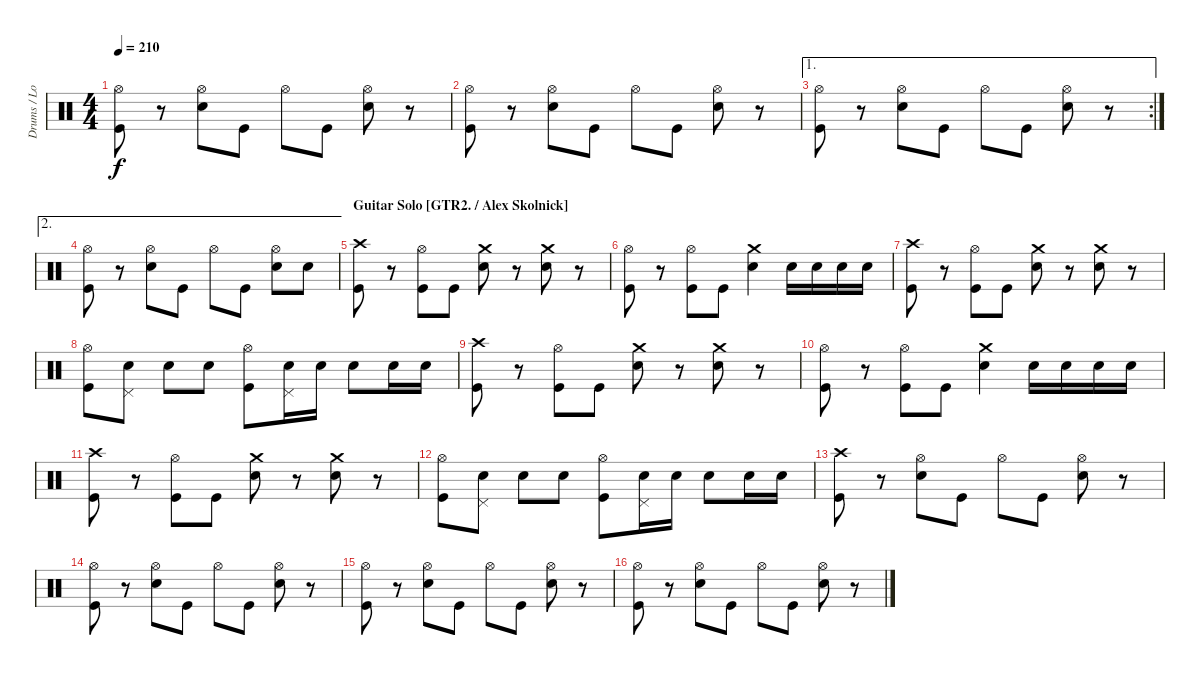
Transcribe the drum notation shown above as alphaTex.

\track ("Drums / Louie Clemente" "Drums / Lo") {instrument percussion}
\staff {score}
\articulation defaults
\ts (4 4)
\tempo 210
\clef neutral
\ks c
("Hi-Hat (open)" "Kick (hit)").8{dy f} r.8 ("Hi-Hat (open)" "Snare (hit) 2").8 "Kick (hit)".8 "Hi-Hat (open)".8 "Kick (hit)".8 ("Hi-Hat (open)" "Snare (hit) 2").8 r.8 |
("Hi-Hat (open)" "Kick (hit)").8 r.8 ("Hi-Hat (open)" "Snare (hit) 2").8 "Kick (hit)".8 "Hi-Hat (open)".8 "Kick (hit)".8 ("Hi-Hat (open)" "Snare (hit) 2").8 r.8 |
\ae 1
\rc 2
("Hi-Hat (open)" "Kick (hit)").8 r.8 ("Hi-Hat (open)" "Snare (hit) 2").8 "Kick (hit)".8 "Hi-Hat (open)".8 "Kick (hit)".8 ("Hi-Hat (open)" "Snare (hit) 2").8 r.8 |
\ae 2
("Hi-Hat (open)" "Kick (hit)").8 r.8 ("Hi-Hat (open)" "Snare (hit) 2").8 "Kick (hit)".8 "Hi-Hat (open)".8 "Kick (hit)".8 ("Hi-Hat (open)" "Snare (hit) 2").8 "Snare (hit) 2".8 |
\section ("" "Guitar Solo [GTR2. / Alex Skolnick]")
("Crash high (hit)" "Kick (hit)").8 r.8 ("Hi-Hat (open)" "Kick (hit)").8 "Kick (hit)".8 ("Crash medium (hit)" "Snare (hit) 2").8 r.8 ("Crash medium (hit)" "Snare (hit) 2").8 r.8 |
("Hi-Hat (open)" "Kick (hit)").8 r.8 ("Hi-Hat (open)" "Kick (hit)").8 "Kick (hit)".8 ("Crash medium (hit)" "Snare (hit) 2").4 "Snare (hit) 2".16 "Snare (hit) 2".16 "Snare (hit) 2".16 "Snare (hit) 2".16 |
("Crash high (hit)" "Kick (hit)").8 r.8 ("Hi-Hat (open)" "Kick (hit)").8 "Kick (hit)".8 ("Crash medium (hit)" "Snare (hit) 2").8 r.8 ("Crash medium (hit)" "Snare (hit) 2").8 r.8 |
("Hi-Hat (open)" "Kick (hit)").8 ("Pedal Hi-Hat (hit)" "Snare (hit) 2").8 "Snare (hit) 2".8 "Snare (hit) 2".8 ("Hi-Hat (open)" "Kick (hit)").8 ("Pedal Hi-Hat (hit)" "Snare (hit) 2").16 "Snare (hit) 2".16 "Snare (hit) 2".8 "Snare (hit) 2".16 "Snare (hit) 2".16 |
("Crash high (hit)" "Kick (hit)").8 r.8 ("Hi-Hat (open)" "Kick (hit)").8 "Kick (hit)".8 ("Crash medium (hit)" "Snare (hit) 2").8 r.8 ("Crash medium (hit)" "Snare (hit) 2").8 r.8 |
("Hi-Hat (open)" "Kick (hit)").8 r.8 ("Hi-Hat (open)" "Kick (hit)").8 "Kick (hit)".8 ("Crash medium (hit)" "Snare (hit) 2").4 "Snare (hit) 2".16 "Snare (hit) 2".16 "Snare (hit) 2".16 "Snare (hit) 2".16 |
("Crash high (hit)" "Kick (hit)").8 r.8 ("Hi-Hat (open)" "Kick (hit)").8 "Kick (hit)".8 ("Crash medium (hit)" "Snare (hit) 2").8 r.8 ("Crash medium (hit)" "Snare (hit) 2").8 r.8 |
("Hi-Hat (open)" "Kick (hit)").8 ("Pedal Hi-Hat (hit)" "Snare (hit) 2").8 "Snare (hit) 2".8 "Snare (hit) 2".8 ("Hi-Hat (open)" "Kick (hit)").8 ("Pedal Hi-Hat (hit)" "Snare (hit) 2").16 "Snare (hit) 2".16 "Snare (hit) 2".8 "Snare (hit) 2".16 "Snare (hit) 2".16 |
("Crash high (hit)" "Kick (hit)").8 r.8 ("Hi-Hat (open)" "Snare (hit) 2").8 "Kick (hit)".8 "Hi-Hat (open)".8 "Kick (hit)".8 ("Hi-Hat (open)" "Snare (hit) 2").8 r.8 |
("Hi-Hat (open)" "Kick (hit)").8 r.8 ("Hi-Hat (open)" "Snare (hit) 2").8 "Kick (hit)".8 "Hi-Hat (open)".8 "Kick (hit)".8 ("Hi-Hat (open)" "Snare (hit) 2").8 r.8 |
("Hi-Hat (open)" "Kick (hit)").8 r.8 ("Hi-Hat (open)" "Snare (hit) 2").8 "Kick (hit)".8 "Hi-Hat (open)".8 "Kick (hit)".8 ("Hi-Hat (open)" "Snare (hit) 2").8 r.8 |
("Hi-Hat (open)" "Kick (hit)").8 r.8 ("Hi-Hat (open)" "Snare (hit) 2").8 "Kick (hit)".8 "Hi-Hat (open)".8 "Kick (hit)".8 ("Hi-Hat (open)" "Snare (hit) 2").8 r.8
